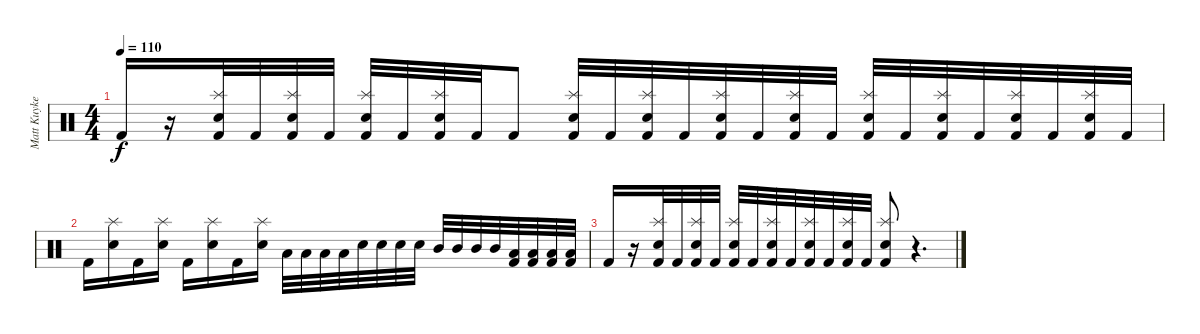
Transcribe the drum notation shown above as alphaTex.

\track ("Matt Kuykendall (Drums)" "Matt Kuyke") {instrument percussion}
\staff {score}
\articulation defaults
\ts (4 4)
\tempo 110
\clef neutral
\ks c "Kick (hit) 2".16{dy f}
r.16 ("Splash (hit)" "Snare (hit) 2" "Kick (hit) 2").32 "Kick (hit) 2".32 ("Splash (hit)" "Snare (hit) 2" "Kick (hit) 2").32 "Kick (hit) 2".32 ("Splash (hit)" "Snare (hit) 2" "Kick (hit) 2").32 "Kick (hit) 2".32 ("Splash (hit)" "Snare (hit) 2" "Kick (hit) 2").32 "Kick (hit) 2".32 "Kick (hit) 2".8 ("Splash (hit)" "Snare (hit) 2" "Kick (hit) 2").32 "Kick (hit) 2".32 ("Splash (hit)" "Snare (hit) 2" "Kick (hit) 2").32 "Kick (hit) 2".32 ("Splash (hit)" "Snare (hit) 2" "Kick (hit) 2").32 "Kick (hit) 2".32 ("Splash (hit)" "Snare (hit) 2" "Kick (hit) 2").32 "Kick (hit) 2".32 ("Splash (hit)" "Snare (hit) 2" "Kick (hit) 2").32 "Kick (hit) 2".32 ("Splash (hit)" "Snare (hit) 2" "Kick (hit) 2").32 "Kick (hit) 2".32 ("Splash (hit)" "Snare (hit) 2" "Kick (hit) 2").32 "Kick (hit) 2".32 ("Splash (hit)" "Snare (hit) 2" "Kick (hit) 2").32 "Kick (hit) 2".32 |
"Kick (hit) 2".16 ("Splash (hit)" "Snare (hit) 2").16 "Kick (hit) 2".16 ("Splash (hit)" "Snare (hit) 2").16 "Kick (hit) 2".16 ("Splash (hit)" "Snare (hit) 2").16 "Kick (hit) 2".16 ("Splash (hit)" "Snare (hit) 2").16 "Low Floor Tom (hit)".32 "Low Floor Tom (hit)".32 "Low Floor Tom (hit)".32 "Low Floor Tom (hit)".32 "Snare (hit) 2".32 "Snare (hit) 2".32 "Snare (hit) 2".32 "Snare (hit) 2".32 "Mid Tom (hit)".32 "Mid Tom (hit)".32 "Mid Tom (hit)".32 "Mid Tom (hit)".32 ("Low Floor Tom (hit)" "Kick (hit) 2").32 ("Low Floor Tom (hit)" "Kick (hit) 2").32 ("Low Floor Tom (hit)" "Kick (hit) 2").32 ("Low Floor Tom (hit)" "Kick (hit) 2").32 |
"Kick (hit) 2".16 r.16 ("Splash (hit)" "Snare (hit) 2" "Kick (hit) 2").32 "Kick (hit) 2".32 ("Splash (hit)" "Snare (hit) 2" "Kick (hit) 2").32 "Kick (hit) 2".32 ("Splash (hit)" "Snare (hit) 2" "Kick (hit) 2").32 "Kick (hit) 2".32 ("Splash (hit)" "Snare (hit) 2" "Kick (hit) 2").32 "Kick (hit) 2".32 ("Splash (hit)" "Snare (hit) 2" "Kick (hit) 2").32 "Kick (hit) 2".32 ("Splash (hit)" "Snare (hit) 2" "Kick (hit) 2").32 "Kick (hit) 2".32 ("Splash (hit)" "Snare (hit) 2" "Kick (hit) 2").8 r.4{d}
